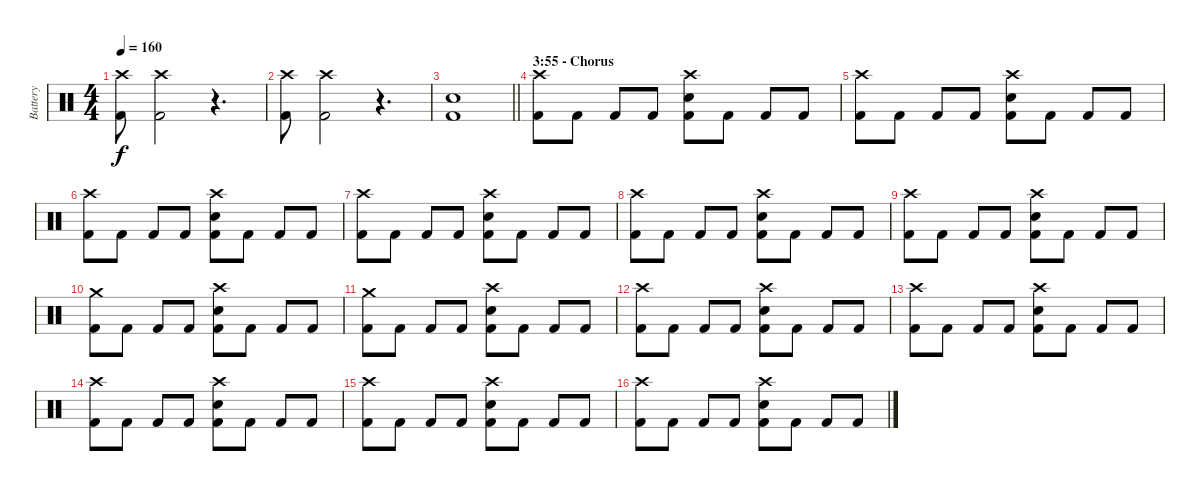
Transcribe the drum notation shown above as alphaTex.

\track ("Battery" "Battery") {instrument percussion}
\staff {score}
\articulation defaults
\ts (4 4)
\tempo 160
\clef neutral
\ks c
("Crash high (hit)" "Kick (hit) 2").8{dy f} ("Crash high (hit)" "Kick (hit) 2").2 r.4{d} |
("Crash high (hit)" "Kick (hit) 2").8 ("Crash high (hit)" "Kick (hit) 2").2 r.4{d} |
\barLineRight lightlight
("Electric Snare (hit)" "Kick (hit) 2").1 |
\section ("" "3:55 - Chorus")
("Crash high (hit)" "Kick (hit) 2").8 "Kick (hit) 2".8 "Kick (hit) 2".8 "Kick (hit) 2".8 ("Crash high (hit)" "Electric Snare (hit)" "Kick (hit) 2").8 "Kick (hit) 2".8 "Kick (hit) 2".8 "Kick (hit) 2".8 |
("Crash high (hit)" "Kick (hit) 2").8 "Kick (hit) 2".8 "Kick (hit) 2".8 "Kick (hit) 2".8 ("Crash high (hit)" "Electric Snare (hit)" "Kick (hit) 2").8 "Kick (hit) 2".8 "Kick (hit) 2".8 "Kick (hit) 2".8 |
("Crash high (hit)" "Kick (hit) 2").8 "Kick (hit) 2".8 "Kick (hit) 2".8 "Kick (hit) 2".8 ("Crash high (hit)" "Electric Snare (hit)" "Kick (hit) 2").8 "Kick (hit) 2".8 "Kick (hit) 2".8 "Kick (hit) 2".8 |
("Crash high (hit)" "Kick (hit) 2").8 "Kick (hit) 2".8 "Kick (hit) 2".8 "Kick (hit) 2".8 ("Crash high (hit)" "Electric Snare (hit)" "Kick (hit) 2").8 "Kick (hit) 2".8 "Kick (hit) 2".8 "Kick (hit) 2".8 |
("Crash high (hit)" "Kick (hit) 2").8 "Kick (hit) 2".8 "Kick (hit) 2".8 "Kick (hit) 2".8 ("Crash high (hit)" "Electric Snare (hit)" "Kick (hit) 2").8 "Kick (hit) 2".8 "Kick (hit) 2".8 "Kick (hit) 2".8 |
("Crash high (hit)" "Kick (hit) 2").8 "Kick (hit) 2".8 "Kick (hit) 2".8 "Kick (hit) 2".8 ("Crash high (hit)" "Electric Snare (hit)" "Kick (hit) 2").8 "Kick (hit) 2".8 "Kick (hit) 2".8 "Kick (hit) 2".8 |
("Crash medium (hit)" "Kick (hit) 2").8 "Kick (hit) 2".8 "Kick (hit) 2".8 "Kick (hit) 2".8 ("Crash high (hit)" "Electric Snare (hit)" "Kick (hit) 2").8 "Kick (hit) 2".8 "Kick (hit) 2".8 "Kick (hit) 2".8 |
("Crash medium (hit)" "Kick (hit) 2").8 "Kick (hit) 2".8 "Kick (hit) 2".8 "Kick (hit) 2".8 ("Crash high (hit)" "Electric Snare (hit)" "Kick (hit) 2").8 "Kick (hit) 2".8 "Kick (hit) 2".8 "Kick (hit) 2".8 |
("Crash high (hit)" "Kick (hit) 2").8 "Kick (hit) 2".8 "Kick (hit) 2".8 "Kick (hit) 2".8 ("Crash high (hit)" "Electric Snare (hit)" "Kick (hit) 2").8 "Kick (hit) 2".8 "Kick (hit) 2".8 "Kick (hit) 2".8 |
("Crash high (hit)" "Kick (hit) 2").8 "Kick (hit) 2".8 "Kick (hit) 2".8 "Kick (hit) 2".8 ("Crash high (hit)" "Electric Snare (hit)" "Kick (hit) 2").8 "Kick (hit) 2".8 "Kick (hit) 2".8 "Kick (hit) 2".8 |
("Crash high (hit)" "Kick (hit) 2").8 "Kick (hit) 2".8 "Kick (hit) 2".8 "Kick (hit) 2".8 ("Crash high (hit)" "Electric Snare (hit)" "Kick (hit) 2").8 "Kick (hit) 2".8 "Kick (hit) 2".8 "Kick (hit) 2".8 |
("Crash high (hit)" "Kick (hit) 2").8 "Kick (hit) 2".8 "Kick (hit) 2".8 "Kick (hit) 2".8 ("Crash high (hit)" "Electric Snare (hit)" "Kick (hit) 2").8 "Kick (hit) 2".8 "Kick (hit) 2".8 "Kick (hit) 2".8 |
("Crash high (hit)" "Kick (hit) 2").8 "Kick (hit) 2".8 "Kick (hit) 2".8 "Kick (hit) 2".8 ("Crash high (hit)" "Electric Snare (hit)" "Kick (hit) 2").8 "Kick (hit) 2".8 "Kick (hit) 2".8 "Kick (hit) 2".8
